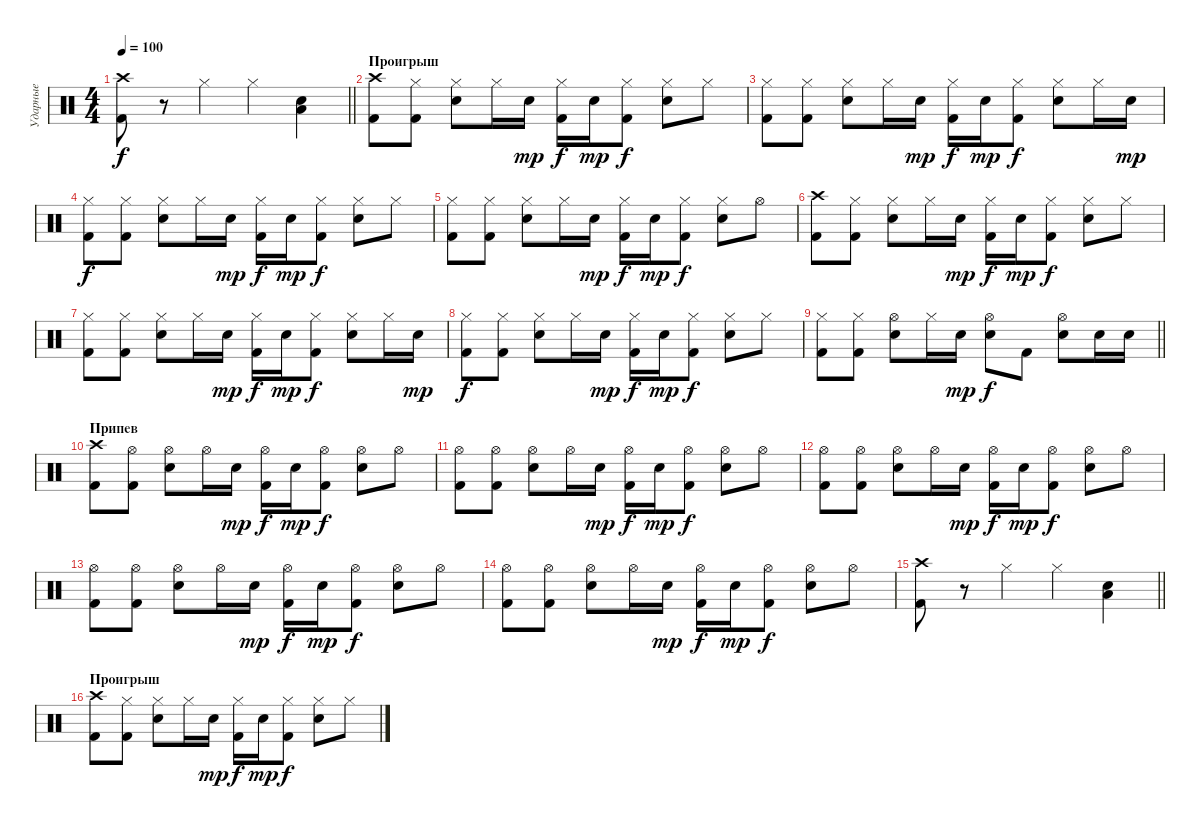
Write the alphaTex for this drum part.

\track ("Ударные" "Ударные") {instrument percussion}
\staff {score}
\articulation defaults
\ts (4 4)
\tempo 100
\clef neutral
\barLineRight lightlight
\ks c
("Crash high (hit)" "Kick (hit) 2").8{dy f} r.8 "Hi-Hat (closed)".4 "Hi-Hat (closed)".4 ("Electric Snare (hit)" "Low Tom (hit)").4 |
\section ("" "Проигрыш")
("Crash high (hit)" "Kick (hit) 2").8 ("Hi-Hat (closed)" "Kick (hit) 2").8 ("Hi-Hat (closed)" "Electric Snare (hit)").8 "Hi-Hat (closed)".16 "Electric Snare (hit)".16{dy mp} ("Hi-Hat (closed)" "Kick (hit) 2").16{dy f} "Electric Snare (hit)".16{dy mp} ("Hi-Hat (closed)" "Kick (hit) 2").8{dy f} ("Hi-Hat (closed)" "Electric Snare (hit)").8 "Hi-Hat (closed)".8 |
("Hi-Hat (closed)" "Kick (hit) 2").8 ("Hi-Hat (closed)" "Kick (hit) 2").8 ("Hi-Hat (closed)" "Electric Snare (hit)").8 "Hi-Hat (closed)".16 "Electric Snare (hit)".16{dy mp} ("Hi-Hat (closed)" "Kick (hit) 2").16{dy f} "Electric Snare (hit)".16{dy mp} ("Hi-Hat (closed)" "Kick (hit) 2").8{dy f} ("Hi-Hat (closed)" "Electric Snare (hit)").8 "Hi-Hat (closed)".16 "Electric Snare (hit)".16{dy mp} |
("Hi-Hat (closed)" "Kick (hit) 2").8{dy f} ("Hi-Hat (closed)" "Kick (hit) 2").8 ("Hi-Hat (closed)" "Electric Snare (hit)").8 "Hi-Hat (closed)".16 "Electric Snare (hit)".16{dy mp} ("Hi-Hat (closed)" "Kick (hit) 2").16{dy f} "Electric Snare (hit)".16{dy mp} ("Hi-Hat (closed)" "Kick (hit) 2").8{dy f} ("Hi-Hat (closed)" "Electric Snare (hit)").8 "Hi-Hat (closed)".8 |
("Hi-Hat (closed)" "Kick (hit) 2").8 ("Hi-Hat (closed)" "Kick (hit) 2").8 ("Hi-Hat (closed)" "Electric Snare (hit)").8 "Hi-Hat (closed)".16 "Electric Snare (hit)".16{dy mp} ("Hi-Hat (closed)" "Kick (hit) 2").16{dy f} "Electric Snare (hit)".16{dy mp} ("Hi-Hat (closed)" "Kick (hit) 2").8{dy f} ("Hi-Hat (closed)" "Electric Snare (hit)").8 "Hi-Hat (open)".8 |
("Crash high (hit)" "Kick (hit) 2").8 ("Hi-Hat (closed)" "Kick (hit) 2").8 ("Hi-Hat (closed)" "Electric Snare (hit)").8 "Hi-Hat (closed)".16 "Electric Snare (hit)".16{dy mp} ("Hi-Hat (closed)" "Kick (hit) 2").16{dy f} "Electric Snare (hit)".16{dy mp} ("Hi-Hat (closed)" "Kick (hit) 2").8{dy f} ("Hi-Hat (closed)" "Electric Snare (hit)").8 "Hi-Hat (closed)".8 |
("Hi-Hat (closed)" "Kick (hit) 2").8 ("Hi-Hat (closed)" "Kick (hit) 2").8 ("Hi-Hat (closed)" "Electric Snare (hit)").8 "Hi-Hat (closed)".16 "Electric Snare (hit)".16{dy mp} ("Hi-Hat (closed)" "Kick (hit) 2").16{dy f} "Electric Snare (hit)".16{dy mp} ("Hi-Hat (closed)" "Kick (hit) 2").8{dy f} ("Hi-Hat (closed)" "Electric Snare (hit)").8 "Hi-Hat (closed)".16 "Electric Snare (hit)".16{dy mp} |
("Hi-Hat (closed)" "Kick (hit) 2").8{dy f} ("Hi-Hat (closed)" "Kick (hit) 2").8 ("Hi-Hat (closed)" "Electric Snare (hit)").8 "Hi-Hat (closed)".16 "Electric Snare (hit)".16{dy mp} ("Hi-Hat (closed)" "Kick (hit) 2").16{dy f} "Electric Snare (hit)".16{dy mp} ("Hi-Hat (closed)" "Kick (hit) 2").8{dy f} ("Hi-Hat (closed)" "Electric Snare (hit)").8 "Hi-Hat (closed)".8 |
\barLineRight lightlight
("Hi-Hat (closed)" "Kick (hit) 2").8 ("Hi-Hat (closed)" "Kick (hit) 2").8 ("Hi-Hat (open)" "Electric Snare (hit)").8 "Hi-Hat (closed)".16 "Electric Snare (hit)".16{dy mp} ("Hi-Hat (open)" "Electric Snare (hit)").8{dy f} "Kick (hit) 2".8 ("Hi-Hat (open)" "Electric Snare (hit)").8 "Electric Snare (hit)".16 "Electric Snare (hit)".16 |
\section ("" "Припев")
("Crash high (hit)" "Kick (hit) 2").8 ("Hi-Hat (open)" "Kick (hit) 2").8 ("Hi-Hat (open)" "Electric Snare (hit)").8 "Hi-Hat (open)".16 "Electric Snare (hit)".16{dy mp} ("Hi-Hat (open)" "Kick (hit) 2").16{dy f} "Electric Snare (hit)".16{dy mp} ("Hi-Hat (open)" "Kick (hit) 2").8{dy f} ("Hi-Hat (open)" "Electric Snare (hit)").8 "Hi-Hat (open)".8 |
("Hi-Hat (open)" "Kick (hit) 2").8 ("Hi-Hat (open)" "Kick (hit) 2").8 ("Hi-Hat (open)" "Electric Snare (hit)").8 "Hi-Hat (open)".16 "Electric Snare (hit)".16{dy mp} ("Hi-Hat (open)" "Kick (hit) 2").16{dy f} "Electric Snare (hit)".16{dy mp} ("Hi-Hat (open)" "Kick (hit) 2").8{dy f} ("Hi-Hat (open)" "Electric Snare (hit)").8 "Hi-Hat (open)".8 |
("Hi-Hat (open)" "Kick (hit) 2").8 ("Hi-Hat (open)" "Kick (hit) 2").8 ("Hi-Hat (open)" "Electric Snare (hit)").8 "Hi-Hat (open)".16 "Electric Snare (hit)".16{dy mp} ("Hi-Hat (open)" "Kick (hit) 2").16{dy f} "Electric Snare (hit)".16{dy mp} ("Hi-Hat (open)" "Kick (hit) 2").8{dy f} ("Hi-Hat (open)" "Electric Snare (hit)").8 "Hi-Hat (open)".8 |
("Hi-Hat (open)" "Kick (hit) 2").8 ("Hi-Hat (open)" "Kick (hit) 2").8 ("Hi-Hat (open)" "Electric Snare (hit)").8 "Hi-Hat (open)".16 "Electric Snare (hit)".16{dy mp} ("Hi-Hat (open)" "Kick (hit) 2").16{dy f} "Electric Snare (hit)".16{dy mp} ("Hi-Hat (open)" "Kick (hit) 2").8{dy f} ("Hi-Hat (open)" "Electric Snare (hit)").8 "Hi-Hat (open)".8 |
("Hi-Hat (open)" "Kick (hit) 2").8 ("Hi-Hat (open)" "Kick (hit) 2").8 ("Hi-Hat (open)" "Electric Snare (hit)").8 "Hi-Hat (open)".16 "Electric Snare (hit)".16{dy mp} ("Hi-Hat (open)" "Kick (hit) 2").16{dy f} "Electric Snare (hit)".16{dy mp} ("Hi-Hat (open)" "Kick (hit) 2").8{dy f} ("Hi-Hat (open)" "Electric Snare (hit)").8 "Hi-Hat (open)".8 |
\barLineRight lightlight
("Crash high (hit)" "Kick (hit) 2").8 r.8 "Hi-Hat (closed)".4 "Hi-Hat (closed)".4 ("Electric Snare (hit)" "Low Tom (hit)").4 |
\section ("" "Проигрыш")
("Crash high (hit)" "Kick (hit) 2").8 ("Hi-Hat (closed)" "Kick (hit) 2").8 ("Hi-Hat (closed)" "Electric Snare (hit)").8 "Hi-Hat (closed)".16 "Electric Snare (hit)".16{dy mp} ("Hi-Hat (closed)" "Kick (hit) 2").16{dy f} "Electric Snare (hit)".16{dy mp} ("Hi-Hat (closed)" "Kick (hit) 2").8{dy f} ("Hi-Hat (closed)" "Electric Snare (hit)").8 "Hi-Hat (closed)".8
